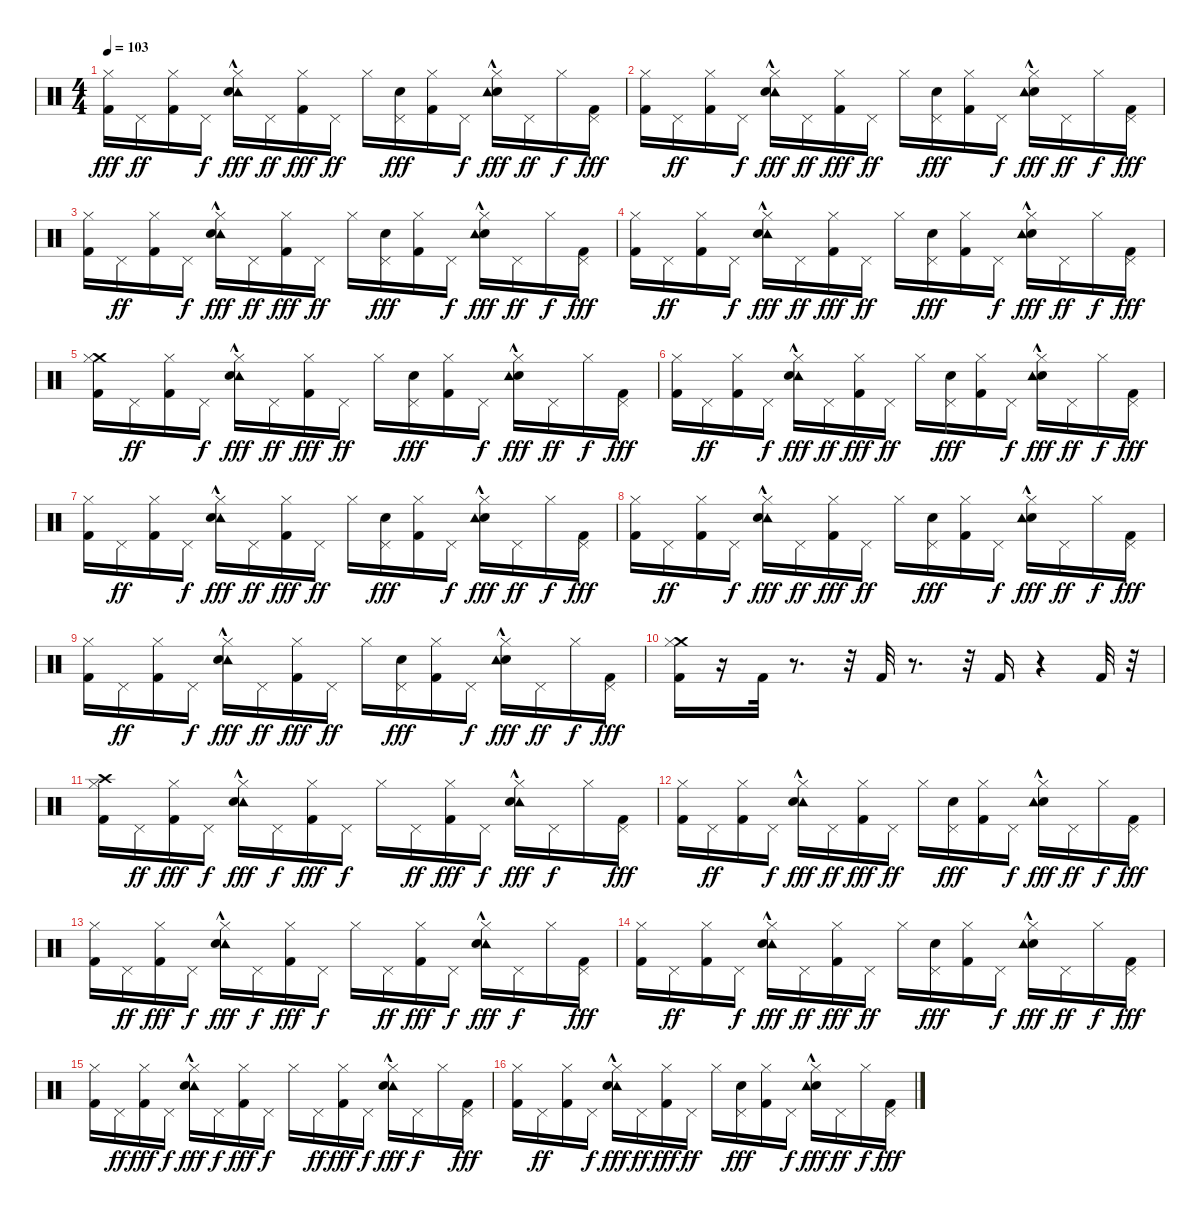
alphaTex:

\track "" {instrument percussion}
\staff {score}
\articulation defaults
\ts (4 4)
\tempo 103
\clef neutral
\ks c
("Kick (hit) 2" "Hi-Hat (closed)").16{dy fff} "Pedal Hi-Hat (hit)".16{dy ff} ("Kick (hit) 2" "Hi-Hat (closed)").16 "Pedal Hi-Hat (hit)".16{dy f} ("Tambourine (hit)"{hac} "Hi-Hat (closed)" "Electric Snare (hit)").16{dy fff} "Pedal Hi-Hat (hit)".16{dy ff} ("Hi-Hat (closed)" "Kick (hit) 2").16{dy fff} "Pedal Hi-Hat (hit)".16{dy ff} "Hi-Hat (closed)".16 ("Pedal Hi-Hat (hit)" "Electric Snare (hit)").16{dy fff} ("Kick (hit) 2" "Hi-Hat (closed)").16 "Pedal Hi-Hat (hit)".16{dy f} ("Electric Snare (hit)" "Hi-Hat (closed)" "Tambourine (hit)"{hac}).16{dy fff} "Pedal Hi-Hat (hit)".16{dy ff} "Hi-Hat (closed)".16{dy f} ("Pedal Hi-Hat (hit)" "Kick (hit) 2").16{dy fff} |
("Kick (hit) 2" "Hi-Hat (closed)").16 "Pedal Hi-Hat (hit)".16{dy ff} ("Kick (hit) 2" "Hi-Hat (closed)").16 "Pedal Hi-Hat (hit)".16{dy f} ("Tambourine (hit)"{hac} "Hi-Hat (closed)" "Electric Snare (hit)").16{dy fff} "Pedal Hi-Hat (hit)".16{dy ff} ("Hi-Hat (closed)" "Kick (hit) 2").16{dy fff} "Pedal Hi-Hat (hit)".16{dy ff} "Hi-Hat (closed)".16 ("Pedal Hi-Hat (hit)" "Electric Snare (hit)").16{dy fff} ("Kick (hit) 2" "Hi-Hat (closed)").16 "Pedal Hi-Hat (hit)".16{dy f} ("Electric Snare (hit)" "Hi-Hat (closed)" "Tambourine (hit)"{hac}).16{dy fff} "Pedal Hi-Hat (hit)".16{dy ff} "Hi-Hat (closed)".16{dy f} ("Pedal Hi-Hat (hit)" "Kick (hit) 2").16{dy fff} |
("Kick (hit) 2" "Hi-Hat (closed)").16 "Pedal Hi-Hat (hit)".16{dy ff} ("Kick (hit) 2" "Hi-Hat (closed)").16 "Pedal Hi-Hat (hit)".16{dy f} ("Tambourine (hit)"{hac} "Hi-Hat (closed)" "Electric Snare (hit)").16{dy fff} "Pedal Hi-Hat (hit)".16{dy ff} ("Hi-Hat (closed)" "Kick (hit) 2").16{dy fff} "Pedal Hi-Hat (hit)".16{dy ff} "Hi-Hat (closed)".16 ("Pedal Hi-Hat (hit)" "Electric Snare (hit)").16{dy fff} ("Kick (hit) 2" "Hi-Hat (closed)").16 "Pedal Hi-Hat (hit)".16{dy f} ("Electric Snare (hit)" "Hi-Hat (closed)" "Tambourine (hit)"{hac}).16{dy fff} "Pedal Hi-Hat (hit)".16{dy ff} "Hi-Hat (closed)".16{dy f} ("Pedal Hi-Hat (hit)" "Kick (hit) 2").16{dy fff} |
("Kick (hit) 2" "Hi-Hat (closed)").16 "Pedal Hi-Hat (hit)".16{dy ff} ("Kick (hit) 2" "Hi-Hat (closed)").16 "Pedal Hi-Hat (hit)".16{dy f} ("Tambourine (hit)"{hac} "Hi-Hat (closed)" "Electric Snare (hit)").16{dy fff} "Pedal Hi-Hat (hit)".16{dy ff} ("Hi-Hat (closed)" "Kick (hit) 2").16{dy fff} "Pedal Hi-Hat (hit)".16{dy ff} "Hi-Hat (closed)".16 ("Pedal Hi-Hat (hit)" "Electric Snare (hit)").16{dy fff} ("Kick (hit) 2" "Hi-Hat (closed)").16 "Pedal Hi-Hat (hit)".16{dy f} ("Electric Snare (hit)" "Hi-Hat (closed)" "Tambourine (hit)"{hac}).16{dy fff} "Pedal Hi-Hat (hit)".16{dy ff} "Hi-Hat (closed)".16{dy f} ("Pedal Hi-Hat (hit)" "Kick (hit) 2").16{dy fff} |
("Crash medium (hit)" "Kick (hit) 2" "Hi-Hat (closed)").16 "Pedal Hi-Hat (hit)".16{dy ff} ("Kick (hit) 2" "Hi-Hat (closed)").16 "Pedal Hi-Hat (hit)".16{dy f} ("Tambourine (hit)"{hac} "Hi-Hat (closed)" "Electric Snare (hit)").16{dy fff} "Pedal Hi-Hat (hit)".16{dy ff} ("Hi-Hat (closed)" "Kick (hit) 2").16{dy fff} "Pedal Hi-Hat (hit)".16{dy ff} "Hi-Hat (closed)".16 ("Pedal Hi-Hat (hit)" "Electric Snare (hit)").16{dy fff} ("Kick (hit) 2" "Hi-Hat (closed)").16 "Pedal Hi-Hat (hit)".16{dy f} ("Electric Snare (hit)" "Hi-Hat (closed)" "Tambourine (hit)"{hac}).16{dy fff} "Pedal Hi-Hat (hit)".16{dy ff} "Hi-Hat (closed)".16{dy f} ("Pedal Hi-Hat (hit)" "Kick (hit) 2").16{dy fff} |
("Kick (hit) 2" "Hi-Hat (closed)").16 "Pedal Hi-Hat (hit)".16{dy ff} ("Kick (hit) 2" "Hi-Hat (closed)").16 "Pedal Hi-Hat (hit)".16{dy f} ("Tambourine (hit)"{hac} "Hi-Hat (closed)" "Electric Snare (hit)").16{dy fff} "Pedal Hi-Hat (hit)".16{dy ff} ("Hi-Hat (closed)" "Kick (hit) 2").16{dy fff} "Pedal Hi-Hat (hit)".16{dy ff} "Hi-Hat (closed)".16 ("Pedal Hi-Hat (hit)" "Electric Snare (hit)").16{dy fff} ("Kick (hit) 2" "Hi-Hat (closed)").16 "Pedal Hi-Hat (hit)".16{dy f} ("Electric Snare (hit)" "Hi-Hat (closed)" "Tambourine (hit)"{hac}).16{dy fff} "Pedal Hi-Hat (hit)".16{dy ff} "Hi-Hat (closed)".16{dy f} ("Pedal Hi-Hat (hit)" "Kick (hit) 2").16{dy fff} |
("Kick (hit) 2" "Hi-Hat (closed)").16 "Pedal Hi-Hat (hit)".16{dy ff} ("Kick (hit) 2" "Hi-Hat (closed)").16 "Pedal Hi-Hat (hit)".16{dy f} ("Tambourine (hit)"{hac} "Hi-Hat (closed)" "Electric Snare (hit)").16{dy fff} "Pedal Hi-Hat (hit)".16{dy ff} ("Hi-Hat (closed)" "Kick (hit) 2").16{dy fff} "Pedal Hi-Hat (hit)".16{dy ff} "Hi-Hat (closed)".16 ("Pedal Hi-Hat (hit)" "Electric Snare (hit)").16{dy fff} ("Kick (hit) 2" "Hi-Hat (closed)").16 "Pedal Hi-Hat (hit)".16{dy f} ("Electric Snare (hit)" "Hi-Hat (closed)" "Tambourine (hit)"{hac}).16{dy fff} "Pedal Hi-Hat (hit)".16{dy ff} "Hi-Hat (closed)".16{dy f} ("Pedal Hi-Hat (hit)" "Kick (hit) 2").16{dy fff} |
("Kick (hit) 2" "Hi-Hat (closed)").16 "Pedal Hi-Hat (hit)".16{dy ff} ("Kick (hit) 2" "Hi-Hat (closed)").16 "Pedal Hi-Hat (hit)".16{dy f} ("Tambourine (hit)"{hac} "Hi-Hat (closed)" "Electric Snare (hit)").16{dy fff} "Pedal Hi-Hat (hit)".16{dy ff} ("Hi-Hat (closed)" "Kick (hit) 2").16{dy fff} "Pedal Hi-Hat (hit)".16{dy ff} "Hi-Hat (closed)".16 ("Pedal Hi-Hat (hit)" "Electric Snare (hit)").16{dy fff} ("Kick (hit) 2" "Hi-Hat (closed)").16 "Pedal Hi-Hat (hit)".16{dy f} ("Electric Snare (hit)" "Hi-Hat (closed)" "Tambourine (hit)"{hac}).16{dy fff} "Pedal Hi-Hat (hit)".16{dy ff} "Hi-Hat (closed)".16{dy f} ("Pedal Hi-Hat (hit)" "Kick (hit) 2").16{dy fff} |
("Kick (hit) 2" "Hi-Hat (closed)").16 "Pedal Hi-Hat (hit)".16{dy ff} ("Kick (hit) 2" "Hi-Hat (closed)").16 "Pedal Hi-Hat (hit)".16{dy f} ("Tambourine (hit)"{hac} "Hi-Hat (closed)" "Electric Snare (hit)").16{dy fff} "Pedal Hi-Hat (hit)".16{dy ff} ("Hi-Hat (closed)" "Kick (hit) 2").16{dy fff} "Pedal Hi-Hat (hit)".16{dy ff} "Hi-Hat (closed)".16 ("Pedal Hi-Hat (hit)" "Electric Snare (hit)").16{dy fff} ("Kick (hit) 2" "Hi-Hat (closed)").16 "Pedal Hi-Hat (hit)".16{dy f} ("Electric Snare (hit)" "Hi-Hat (closed)" "Tambourine (hit)"{hac}).16{dy fff} "Pedal Hi-Hat (hit)".16{dy ff} "Hi-Hat (closed)".16{dy f} ("Pedal Hi-Hat (hit)" "Kick (hit) 2").16{dy fff} |
("Crash medium (hit)" "Kick (hit) 2" "Hi-Hat (closed)").16 r.16 "Kick (hit) 2".32 r.8{d} r.32 "Kick (hit) 2".32 r.8{d} r.32 "Kick (hit) 2".16 r.4 "Kick (hit) 2".32 r.32 |
("Hi-Hat (closed)" "Kick (hit) 2" "Crash high (hit)").16 "Pedal Hi-Hat (hit)".16{dy ff} ("Hi-Hat (closed)" "Kick (hit) 2").16{dy fff} "Pedal Hi-Hat (hit)".16{dy f} ("Tambourine (hit)"{hac} "Hi-Hat (closed)" "Electric Snare (hit)").16{dy fff} "Pedal Hi-Hat (hit)".16{dy f} ("Kick (hit) 2" "Hi-Hat (closed)").16{dy fff} "Pedal Hi-Hat (hit)".16{dy f} "Hi-Hat (closed)".16 "Pedal Hi-Hat (hit)".16{dy ff} ("Kick (hit) 2" "Hi-Hat (closed)").16{dy fff} "Pedal Hi-Hat (hit)".16{dy f} ("Tambourine (hit)"{hac} "Electric Snare (hit)" "Hi-Hat (closed)").16{dy fff} "Pedal Hi-Hat (hit)".16{dy f} "Hi-Hat (closed)".16 ("Kick (hit) 2" "Pedal Hi-Hat (hit)").16{dy fff} |
("Kick (hit) 2" "Hi-Hat (closed)").16 "Pedal Hi-Hat (hit)".16{dy ff} ("Kick (hit) 2" "Hi-Hat (closed)").16 "Pedal Hi-Hat (hit)".16{dy f} ("Tambourine (hit)"{hac} "Hi-Hat (closed)" "Electric Snare (hit)").16{dy fff} "Pedal Hi-Hat (hit)".16{dy ff} ("Hi-Hat (closed)" "Kick (hit) 2").16{dy fff} "Pedal Hi-Hat (hit)".16{dy ff} "Hi-Hat (closed)".16 ("Pedal Hi-Hat (hit)" "Electric Snare (hit)").16{dy fff} ("Kick (hit) 2" "Hi-Hat (closed)").16 "Pedal Hi-Hat (hit)".16{dy f} ("Electric Snare (hit)" "Hi-Hat (closed)" "Tambourine (hit)"{hac}).16{dy fff} "Pedal Hi-Hat (hit)".16{dy ff} "Hi-Hat (closed)".16{dy f} ("Pedal Hi-Hat (hit)" "Kick (hit) 2").16{dy fff} |
("Hi-Hat (closed)" "Kick (hit) 2").16 "Pedal Hi-Hat (hit)".16{dy ff} ("Hi-Hat (closed)" "Kick (hit) 2").16{dy fff} "Pedal Hi-Hat (hit)".16{dy f} ("Tambourine (hit)"{hac} "Hi-Hat (closed)" "Electric Snare (hit)").16{dy fff} "Pedal Hi-Hat (hit)".16{dy f} ("Kick (hit) 2" "Hi-Hat (closed)").16{dy fff} "Pedal Hi-Hat (hit)".16{dy f} "Hi-Hat (closed)".16 "Pedal Hi-Hat (hit)".16{dy ff} ("Kick (hit) 2" "Hi-Hat (closed)").16{dy fff} "Pedal Hi-Hat (hit)".16{dy f} ("Tambourine (hit)"{hac} "Electric Snare (hit)" "Hi-Hat (closed)").16{dy fff} "Pedal Hi-Hat (hit)".16{dy f} "Hi-Hat (closed)".16 ("Kick (hit) 2" "Pedal Hi-Hat (hit)").16{dy fff} |
("Kick (hit) 2" "Hi-Hat (closed)").16 "Pedal Hi-Hat (hit)".16{dy ff} ("Kick (hit) 2" "Hi-Hat (closed)").16 "Pedal Hi-Hat (hit)".16{dy f} ("Tambourine (hit)"{hac} "Hi-Hat (closed)" "Electric Snare (hit)").16{dy fff} "Pedal Hi-Hat (hit)".16{dy ff} ("Hi-Hat (closed)" "Kick (hit) 2").16{dy fff} "Pedal Hi-Hat (hit)".16{dy ff} "Hi-Hat (closed)".16 ("Pedal Hi-Hat (hit)" "Electric Snare (hit)").16{dy fff} ("Kick (hit) 2" "Hi-Hat (closed)").16 "Pedal Hi-Hat (hit)".16{dy f} ("Electric Snare (hit)" "Hi-Hat (closed)" "Tambourine (hit)"{hac}).16{dy fff} "Pedal Hi-Hat (hit)".16{dy ff} "Hi-Hat (closed)".16{dy f} ("Pedal Hi-Hat (hit)" "Kick (hit) 2").16{dy fff} |
("Hi-Hat (closed)" "Kick (hit) 2").16 "Pedal Hi-Hat (hit)".16{dy ff} ("Hi-Hat (closed)" "Kick (hit) 2").16{dy fff} "Pedal Hi-Hat (hit)".16{dy f} ("Tambourine (hit)"{hac} "Hi-Hat (closed)" "Electric Snare (hit)").16{dy fff} "Pedal Hi-Hat (hit)".16{dy f} ("Kick (hit) 2" "Hi-Hat (closed)").16{dy fff} "Pedal Hi-Hat (hit)".16{dy f} "Hi-Hat (closed)".16 "Pedal Hi-Hat (hit)".16{dy ff} ("Kick (hit) 2" "Hi-Hat (closed)").16{dy fff} "Pedal Hi-Hat (hit)".16{dy f} ("Tambourine (hit)"{hac} "Electric Snare (hit)" "Hi-Hat (closed)").16{dy fff} "Pedal Hi-Hat (hit)".16{dy f} "Hi-Hat (closed)".16 ("Kick (hit) 2" "Pedal Hi-Hat (hit)").16{dy fff} |
("Kick (hit) 2" "Hi-Hat (closed)").16 "Pedal Hi-Hat (hit)".16{dy ff} ("Kick (hit) 2" "Hi-Hat (closed)").16 "Pedal Hi-Hat (hit)".16{dy f} ("Tambourine (hit)"{hac} "Hi-Hat (closed)" "Electric Snare (hit)").16{dy fff} "Pedal Hi-Hat (hit)".16{dy ff} ("Hi-Hat (closed)" "Kick (hit) 2").16{dy fff} "Pedal Hi-Hat (hit)".16{dy ff} "Hi-Hat (closed)".16 ("Pedal Hi-Hat (hit)" "Electric Snare (hit)").16{dy fff} ("Kick (hit) 2" "Hi-Hat (closed)").16 "Pedal Hi-Hat (hit)".16{dy f} ("Electric Snare (hit)" "Hi-Hat (closed)" "Tambourine (hit)"{hac}).16{dy fff} "Pedal Hi-Hat (hit)".16{dy ff} "Hi-Hat (closed)".16{dy f} ("Pedal Hi-Hat (hit)" "Kick (hit) 2").16{dy fff}
